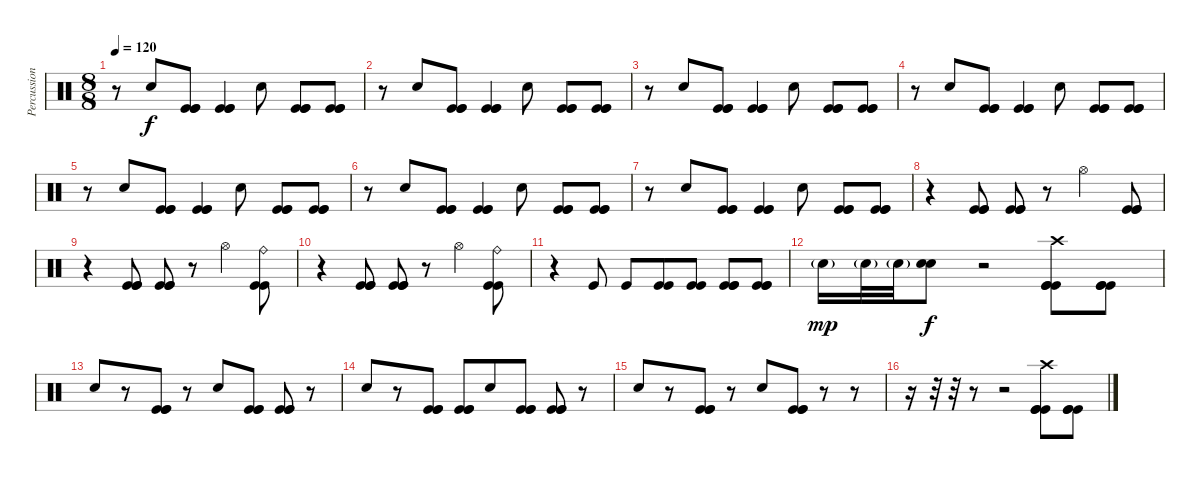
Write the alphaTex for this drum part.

\track ("Percussion" "Percussion") {instrument percussion}
\staff {score}
\articulation defaults
\ts (8 8)
\tempo 120
\clef neutral
\ks c
r.8{dy f} "Electric Snare (hit)".8 ("Kick (hit)" "Kick (hit)" "Kick (hit)").8 ("Kick (hit)" "Kick (hit)" "Kick (hit)").4 "Electric Snare (hit)".8 ("Kick (hit)" "Kick (hit)" "Kick (hit)").8 ("Kick (hit)" "Kick (hit)" "Kick (hit)").8 |
r.8 "Electric Snare (hit)".8 ("Kick (hit)" "Kick (hit)" "Kick (hit)").8 ("Kick (hit)" "Kick (hit)" "Kick (hit)").4 "Electric Snare (hit)".8 ("Kick (hit)" "Kick (hit)" "Kick (hit)").8 ("Kick (hit)" "Kick (hit)" "Kick (hit)").8 |
r.8 "Electric Snare (hit)".8 ("Kick (hit)" "Kick (hit)" "Kick (hit)").8 ("Kick (hit)" "Kick (hit)" "Kick (hit)").4 "Electric Snare (hit)".8 ("Kick (hit)" "Kick (hit)" "Kick (hit)").8 ("Kick (hit)" "Kick (hit)" "Kick (hit)").8 |
r.8 "Electric Snare (hit)".8 ("Kick (hit)" "Kick (hit)" "Kick (hit)").8 ("Kick (hit)" "Kick (hit)" "Kick (hit)").4 "Electric Snare (hit)".8 ("Kick (hit)" "Kick (hit)" "Kick (hit)").8 ("Kick (hit)" "Kick (hit)" "Kick (hit)").8 |
r.8 "Electric Snare (hit)".8 ("Kick (hit)" "Kick (hit)" "Kick (hit)").8 ("Kick (hit)" "Kick (hit)" "Kick (hit)").4 "Electric Snare (hit)".8 ("Kick (hit)" "Kick (hit)" "Kick (hit)").8 ("Kick (hit)" "Kick (hit)" "Kick (hit)").8 |
r.8 "Electric Snare (hit)".8 ("Kick (hit)" "Kick (hit)" "Kick (hit)").8 ("Kick (hit)" "Kick (hit)" "Kick (hit)").4 "Electric Snare (hit)".8 ("Kick (hit)" "Kick (hit)" "Kick (hit)").8 ("Kick (hit)" "Kick (hit)" "Kick (hit)").8 |
r.8 "Electric Snare (hit)".8 ("Kick (hit)" "Kick (hit)" "Kick (hit)").8 ("Kick (hit)" "Kick (hit)" "Kick (hit)").4 "Electric Snare (hit)".8 ("Kick (hit)" "Kick (hit)" "Kick (hit)").8 ("Kick (hit)" "Kick (hit)" "Kick (hit)").8 |
r.4 ("Kick (hit)" "Kick (hit)" "Kick (hit)").8 ("Kick (hit)" "Kick (hit)" "Kick (hit)").8 r.8 "Hi-Hat (open)".4 ("Kick (hit)" "Kick (hit)" "Kick (hit)").8 |
r.4 ("Kick (hit)" "Kick (hit)" "Kick (hit)").8 ("Kick (hit)" "Kick (hit)" "Kick (hit)").8 r.8 "Hi-Hat (open)".4 ("Ride (bell)" "Kick (hit)" "Kick (hit)").8 |
r.4 ("Kick (hit)" "Kick (hit)" "Kick (hit)").8 ("Kick (hit)" "Kick (hit)" "Kick (hit)").8 r.8 "Hi-Hat (open)".4 ("Ride (bell)" "Kick (hit)" "Kick (hit)").8 |
r.4 "Kick (hit)".8 "Kick (hit)".8 ("Kick (hit)" "Kick (hit)").8 ("Kick (hit)" "Kick (hit)").8 ("Kick (hit)" "Kick (hit)" "Kick (hit)").8 ("Kick (hit)" "Kick (hit)" "Kick (hit)").8 |
"Electric Snare (hit)"{g}.16{dy mp} "Electric Snare (hit)"{g}.32 "Electric Snare (hit)"{g}.32 ("Electric Snare (hit)" "Electric Snare (hit)").8{dy f} r.2 ("Kick (hit)" "Kick (hit)" "Kick (hit)" "Crash high (hit)").8 ("Kick (hit)" "Kick (hit)" "Kick (hit)").8 |
"Electric Snare (hit)".8 r.8 ("Kick (hit)" "Kick (hit)" "Kick (hit)").8 r.8 "Electric Snare (hit)".8 ("Kick (hit)" "Kick (hit)" "Kick (hit)").8 ("Kick (hit)" "Kick (hit)" "Kick (hit)").8 r.8 |
"Electric Snare (hit)".8 r.8 ("Kick (hit)" "Kick (hit)" "Kick (hit)").8 ("Kick (hit)" "Kick (hit)" "Kick (hit)").8 "Electric Snare (hit)".8 ("Kick (hit)" "Kick (hit)" "Kick (hit)").8 ("Kick (hit)" "Kick (hit)" "Kick (hit)").8 r.8 |
"Electric Snare (hit)".8 r.8 ("Kick (hit)" "Kick (hit)" "Kick (hit)").8 r.8 "Electric Snare (hit)".8 ("Kick (hit)" "Kick (hit)" "Kick (hit)").8 r.8 r.8 |
r.16 r.32 r.32 r.8 r.2 ("Kick (hit)" "Kick (hit)" "Kick (hit)" "Crash high (hit)").8 ("Kick (hit)" "Kick (hit)" "Kick (hit)").8
